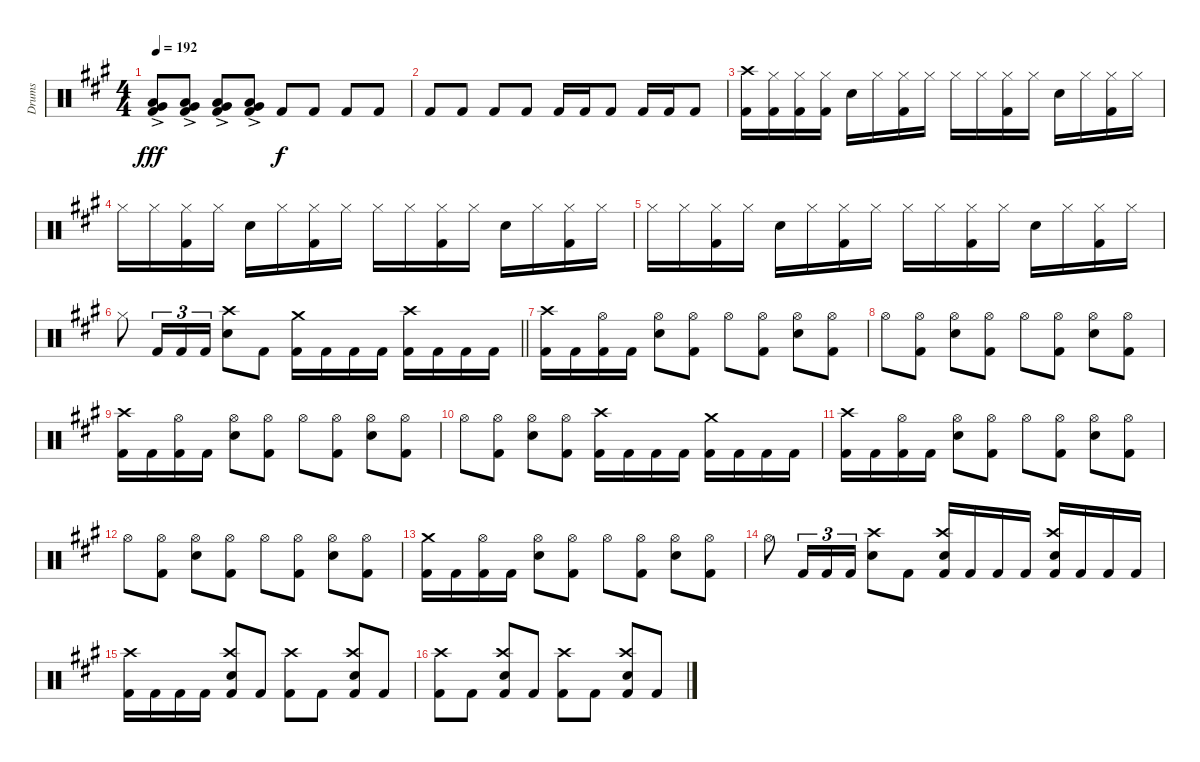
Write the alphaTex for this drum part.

\track ("Drums" "Drums") {instrument percussion}
\staff {score}
\articulation defaults
\ts (4 4)
\tempo 192
\clef neutral
\ks f#minor
("Low Tom (hit)"{ac} "Very Low Tom (hit)"{ac} "Kick (hit) 2").8{dy fff} ("Low Tom (hit)"{ac} "Very Low Tom (hit)"{ac} "Kick (hit) 2").8 ("Low Tom (hit)"{ac} "Very Low Tom (hit)"{ac} "Kick (hit) 2").8 ("Low Tom (hit)"{ac} "Very Low Tom (hit)"{ac} "Kick (hit) 2").8 "Kick (hit) 2".8{dy f} "Kick (hit) 2".8 "Kick (hit) 2".8 "Kick (hit) 2".8 |
"Kick (hit) 2".8 "Kick (hit) 2".8 "Kick (hit) 2".8 "Kick (hit) 2".8 "Kick (hit) 2".16 "Kick (hit) 2".16 "Kick (hit) 2".8 "Kick (hit) 2".16 "Kick (hit) 2".16 "Kick (hit) 2".8 |
("Crash high (hit)" "Kick (hit) 2").16 ("Hi-Hat (closed)" "Kick (hit) 2").16 ("Hi-Hat (closed)" "Kick (hit) 2").16 ("Hi-Hat (closed)" "Kick (hit) 2").16 "Snare (hit) 2".16 "Hi-Hat (closed)".16 ("Hi-Hat (closed)" "Kick (hit) 2").16 "Hi-Hat (closed)".16 "Hi-Hat (closed)".16 "Hi-Hat (closed)".16 ("Hi-Hat (closed)" "Kick (hit) 2").16 "Hi-Hat (closed)".16 "Snare (hit) 2".16 "Hi-Hat (closed)".16 ("Hi-Hat (closed)" "Kick (hit) 2").16 "Hi-Hat (closed)".16 |
"Hi-Hat (closed)".16 "Hi-Hat (closed)".16 ("Hi-Hat (closed)" "Kick (hit) 2").16 "Hi-Hat (closed)".16 "Snare (hit) 2".16 "Hi-Hat (closed)".16 ("Hi-Hat (closed)" "Kick (hit) 2").16 "Hi-Hat (closed)".16 "Hi-Hat (closed)".16 "Hi-Hat (closed)".16 ("Hi-Hat (closed)" "Kick (hit) 2").16 "Hi-Hat (closed)".16 "Snare (hit) 2".16 "Hi-Hat (closed)".16 ("Hi-Hat (closed)" "Kick (hit) 2").16 "Hi-Hat (closed)".16 |
"Hi-Hat (closed)".16 "Hi-Hat (closed)".16 ("Hi-Hat (closed)" "Kick (hit) 2").16 "Hi-Hat (closed)".16 "Snare (hit) 2".16 "Hi-Hat (closed)".16 ("Hi-Hat (closed)" "Kick (hit) 2").16 "Hi-Hat (closed)".16 "Hi-Hat (closed)".16 "Hi-Hat (closed)".16 ("Hi-Hat (closed)" "Kick (hit) 2").16 "Hi-Hat (closed)".16 "Snare (hit) 2".16 "Hi-Hat (closed)".16 ("Hi-Hat (closed)" "Kick (hit) 2").16 "Hi-Hat (closed)".16 |
\barLineRight lightlight "Hi-Hat (closed)".8 "Kick (hit) 2".16{tu (3 2)} "Kick (hit) 2".16{tu (3 2)} "Kick (hit) 2".16{tu (3 2)}
("Crash high (hit)" "Snare (hit) 2").8 "Kick (hit) 2".8 ("Crash medium (hit)" "Kick (hit) 2").16 "Kick (hit) 2".16 "Kick (hit) 2".16 "Kick (hit) 2".16 ("Crash high (hit)" "Kick (hit) 2").16 "Kick (hit) 2".16 "Kick (hit) 2".16 "Kick (hit) 2".16 |
("Crash high (hit)" "Kick (hit) 2").16 "Kick (hit) 2".16 ("Hi-Hat (open)" "Kick (hit) 2").16 "Kick (hit) 2".16 ("Hi-Hat (open)" "Snare (hit) 2").8 ("Hi-Hat (open)" "Kick (hit) 2").8 "Hi-Hat (open)".8 ("Hi-Hat (open)" "Kick (hit) 2").8 ("Hi-Hat (open)" "Snare (hit) 2").8 ("Hi-Hat (open)" "Kick (hit) 2").8 |
"Hi-Hat (open)".8 ("Hi-Hat (open)" "Kick (hit) 2").8 ("Hi-Hat (open)" "Snare (hit) 2").8 ("Hi-Hat (open)" "Kick (hit) 2").8 "Hi-Hat (open)".8 ("Hi-Hat (open)" "Kick (hit) 2").8 ("Hi-Hat (open)" "Snare (hit) 2").8 ("Hi-Hat (open)" "Kick (hit) 2").8 |
("Crash high (hit)" "Kick (hit) 2").16 "Kick (hit) 2".16 ("Hi-Hat (open)" "Kick (hit) 2").16 "Kick (hit) 2".16 ("Hi-Hat (open)" "Snare (hit) 2").8 ("Hi-Hat (open)" "Kick (hit) 2").8 "Hi-Hat (open)".8 ("Hi-Hat (open)" "Kick (hit) 2").8 ("Hi-Hat (open)" "Snare (hit) 2").8 ("Hi-Hat (open)" "Kick (hit) 2").8 |
"Hi-Hat (open)".8 ("Hi-Hat (open)" "Kick (hit) 2").8 ("Hi-Hat (open)" "Snare (hit) 2").8 ("Hi-Hat (open)" "Kick (hit) 2").8 ("Crash high (hit)" "Kick (hit) 2").16 "Kick (hit) 2".16 "Kick (hit) 2".16 "Kick (hit) 2".16 ("Crash medium (hit)" "Kick (hit) 2").16 "Kick (hit) 2".16 "Kick (hit) 2".16 "Kick (hit) 2".16 |
("Crash high (hit)" "Kick (hit) 2").16 "Kick (hit) 2".16 ("Hi-Hat (open)" "Kick (hit) 2").16 "Kick (hit) 2".16 ("Hi-Hat (open)" "Snare (hit) 2").8 ("Hi-Hat (open)" "Kick (hit) 2").8 "Hi-Hat (open)".8 ("Hi-Hat (open)" "Kick (hit) 2").8 ("Hi-Hat (open)" "Snare (hit) 2").8 ("Hi-Hat (open)" "Kick (hit) 2").8 |
"Hi-Hat (open)".8 ("Hi-Hat (open)" "Kick (hit) 2").8 ("Hi-Hat (open)" "Snare (hit) 2").8 ("Hi-Hat (open)" "Kick (hit) 2").8 "Hi-Hat (open)".8 ("Hi-Hat (open)" "Kick (hit) 2").8 ("Hi-Hat (open)" "Snare (hit) 2").8 ("Hi-Hat (open)" "Kick (hit) 2").8 |
("Crash medium (hit)" "Kick (hit) 2").16 "Kick (hit) 2".16 ("Hi-Hat (open)" "Kick (hit) 2").16 "Kick (hit) 2".16 ("Hi-Hat (open)" "Snare (hit) 2").8 ("Hi-Hat (open)" "Kick (hit) 2").8 "Hi-Hat (open)".8 ("Hi-Hat (open)" "Kick (hit) 2").8 ("Hi-Hat (open)" "Snare (hit) 2").8 ("Hi-Hat (open)" "Kick (hit) 2").8 |
"Hi-Hat (open)".8 "Kick (hit) 2".16{tu (3 2)} "Kick (hit) 2".16{tu (3 2)} "Kick (hit) 2".16{tu (3 2)} ("Crash high (hit)" "Snare (hit) 2").8 "Kick (hit) 2".8 ("Crash high (hit)" "Snare (hit) 2" "Kick (hit) 2").16 "Kick (hit) 2".16 "Kick (hit) 2".16 "Kick (hit) 2".16 ("Crash high (hit)" "Snare (hit) 2" "Kick (hit) 2").16 "Kick (hit) 2".16 "Kick (hit) 2".16 "Kick (hit) 2".16 |
("Crash high (hit)" "Kick (hit) 2").16 "Kick (hit) 2".16 "Kick (hit) 2".16 "Kick (hit) 2".16 ("Crash high (hit)" "Snare (hit) 2" "Kick (hit) 2").8 "Kick (hit) 2".8 ("Crash high (hit)" "Kick (hit) 2").8 "Kick (hit) 2".8 ("Crash high (hit)" "Snare (hit) 2" "Kick (hit) 2").8 "Kick (hit) 2".8 |
("Crash high (hit)" "Kick (hit) 2").8 "Kick (hit) 2".8 ("Crash high (hit)" "Snare (hit) 2" "Kick (hit) 2").8 "Kick (hit) 2".8 ("Crash high (hit)" "Kick (hit) 2").8 "Kick (hit) 2".8 ("Crash high (hit)" "Snare (hit) 2" "Kick (hit) 2").8 "Kick (hit) 2".8
